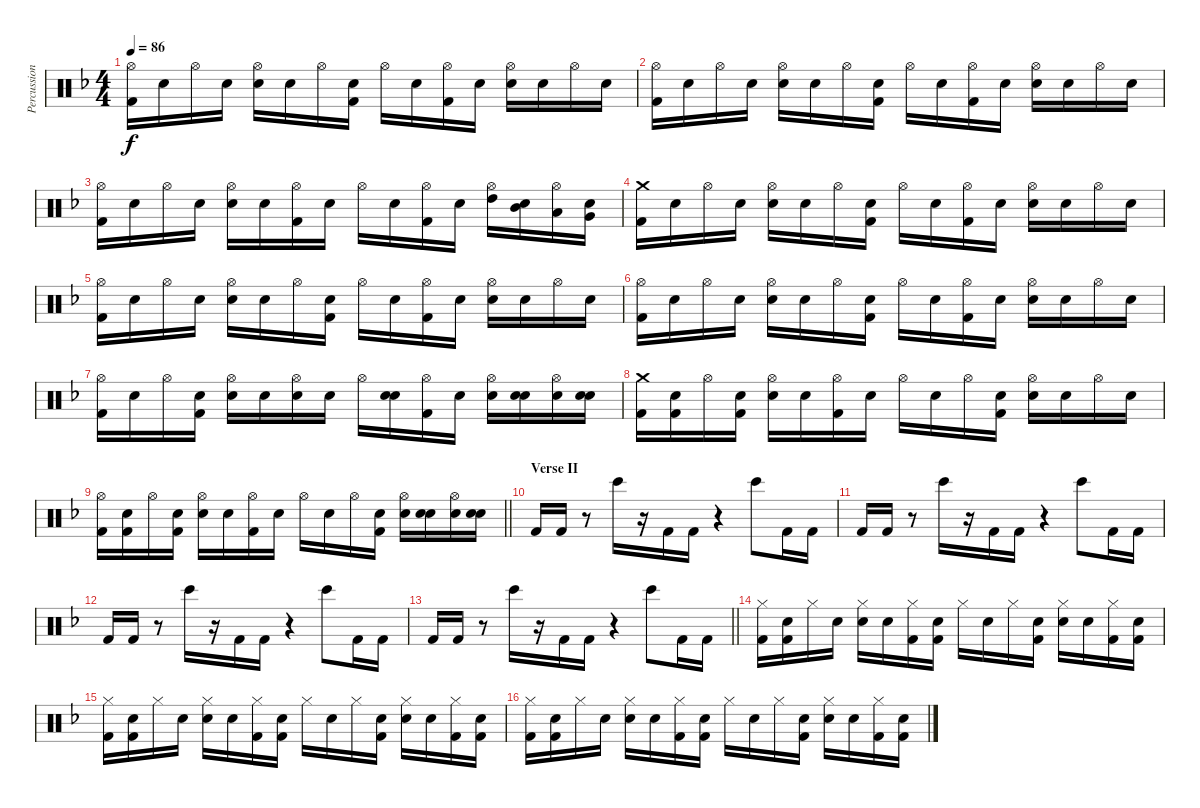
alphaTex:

\track ("Percussion" "Percussion") {instrument percussion}
\staff {score}
\articulation defaults
\ts (4 4)
\tempo 86
\clef neutral
\ks f
("Hi-Hat (open)" "Kick (hit) 2").16{dy f} "Snare (hit)".16 "Hi-Hat (open)".16 "Snare (hit)".16 ("Hi-Hat (open)" "Electric Snare (hit)").16 "Snare (hit)".16 "Hi-Hat (open)".16 ("Snare (hit)" "Kick (hit) 2").16 "Hi-Hat (open)".16 "Snare (hit)".16 ("Hi-Hat (open)" "Kick (hit) 2").16 "Snare (hit)".16 ("Hi-Hat (open)" "Electric Snare (hit)").16 "Snare (hit)".16 "Hi-Hat (open)".16 "Snare (hit)".16 |
("Hi-Hat (open)" "Kick (hit) 2").16 "Snare (hit)".16 "Hi-Hat (open)".16 "Snare (hit)".16 ("Hi-Hat (open)" "Electric Snare (hit)").16 "Snare (hit)".16 "Hi-Hat (open)".16 ("Snare (hit)" "Kick (hit) 2").16 "Hi-Hat (open)".16 "Snare (hit)".16 ("Hi-Hat (open)" "Kick (hit) 2").16 "Snare (hit)".16 ("Hi-Hat (open)" "Electric Snare (hit)").16 "Snare (hit)".16 "Hi-Hat (open)".16 "Snare (hit)".16 |
("Hi-Hat (open)" "Kick (hit) 2").16 "Snare (hit)".16 "Hi-Hat (open)".16 "Snare (hit)".16 ("Hi-Hat (open)" "Electric Snare (hit)").16 "Snare (hit)".16 ("Hi-Hat (open)" "Kick (hit) 2").16 "Snare (hit)".16 "Hi-Hat (open)".16 "Snare (hit)".16 ("Hi-Hat (open)" "Kick (hit) 2").16 "Snare (hit)".16 ("Hi-Hat (open)" "High Tom (hit)").16 ("Snare (hit)" "Mid Tom (hit)").16 ("Hi-Hat (open)" "Low Tom (hit)").16 ("Snare (hit)" "Very Low Tom (hit)").16 |
("Crash medium (hit)" "Kick (hit) 2").16 "Snare (hit)".16 "Hi-Hat (open)".16 "Snare (hit)".16 ("Hi-Hat (open)" "Electric Snare (hit)").16 "Snare (hit)".16 "Hi-Hat (open)".16 ("Snare (hit)" "Kick (hit) 2").16 "Hi-Hat (open)".16 "Snare (hit)".16 ("Hi-Hat (open)" "Kick (hit) 2").16 "Snare (hit)".16 ("Hi-Hat (open)" "Electric Snare (hit)").16 "Snare (hit)".16 "Hi-Hat (open)".16 "Snare (hit)".16 |
("Hi-Hat (open)" "Kick (hit) 2").16 "Snare (hit)".16 "Hi-Hat (open)".16 "Snare (hit)".16 ("Hi-Hat (open)" "Electric Snare (hit)").16 "Snare (hit)".16 "Hi-Hat (open)".16 ("Snare (hit)" "Kick (hit) 2").16 "Hi-Hat (open)".16 "Snare (hit)".16 ("Hi-Hat (open)" "Kick (hit) 2").16 "Snare (hit)".16 ("Hi-Hat (open)" "Electric Snare (hit)").16 "Snare (hit)".16 "Hi-Hat (open)".16 "Snare (hit)".16 |
("Hi-Hat (open)" "Kick (hit) 2").16 "Snare (hit)".16 "Hi-Hat (open)".16 "Snare (hit)".16 ("Hi-Hat (open)" "Electric Snare (hit)").16 "Snare (hit)".16 "Hi-Hat (open)".16 ("Snare (hit)" "Kick (hit) 2").16 "Hi-Hat (open)".16 "Snare (hit)".16 ("Hi-Hat (open)" "Kick (hit) 2").16 "Snare (hit)".16 ("Hi-Hat (open)" "Electric Snare (hit)").16 "Snare (hit)".16 "Hi-Hat (open)".16 "Snare (hit)".16 |
("Hi-Hat (open)" "Kick (hit) 2").16 "Snare (hit)".16 "Hi-Hat (open)".16 ("Snare (hit)" "Kick (hit) 2").16 ("Hi-Hat (open)" "Electric Snare (hit)").16 "Snare (hit)".16 ("Hi-Hat (open)" "Electric Snare (hit)").16 "Snare (hit)".16 "Hi-Hat (open)".16 ("Snare (hit)" "Electric Snare (hit)").16 ("Hi-Hat (open)" "Kick (hit) 2").16 "Snare (hit)".16 ("Hi-Hat (open)" "Electric Snare (hit)").16 ("Snare (hit)" "Electric Snare (hit)").16 ("Hi-Hat (open)" "Electric Snare (hit)").16 ("Snare (hit)" "Electric Snare (hit)").16 |
("Crash medium (hit)" "Kick (hit) 2").16 ("Snare (hit)" "Kick (hit) 2").16 "Hi-Hat (open)".16 ("Snare (hit)" "Kick (hit) 2").16 ("Hi-Hat (open)" "Electric Snare (hit)").16 "Snare (hit)".16 ("Hi-Hat (open)" "Kick (hit) 2").16 "Snare (hit)".16 "Hi-Hat (open)".16 "Snare (hit)".16 "Hi-Hat (open)".16 ("Snare (hit)" "Kick (hit) 2").16 ("Hi-Hat (open)" "Electric Snare (hit)").16 "Snare (hit)".16 "Hi-Hat (open)".16 "Snare (hit)".16 |
\barLineRight lightlight
("Hi-Hat (open)" "Kick (hit) 2").16 ("Snare (hit)" "Kick (hit) 2").16 "Hi-Hat (open)".16 ("Snare (hit)" "Kick (hit) 2").16 ("Hi-Hat (open)" "Electric Snare (hit)").16 "Snare (hit)".16 ("Hi-Hat (open)" "Kick (hit) 2").16 "Snare (hit)".16 "Hi-Hat (open)".16 "Snare (hit)".16 "Hi-Hat (open)".16 ("Snare (hit)" "Kick (hit) 2").16 ("Hi-Hat (open)" "Electric Snare (hit)").16 ("Snare (hit)" "Electric Snare (hit)").16 ("Hi-Hat (open)" "Electric Snare (hit)").16 ("Snare (hit)" "Electric Snare (hit)").16 |
\section ("" "Verse II")
"Kick (hit) 2".16 "Kick (hit) 2".16 r.8 "Bongo High (hit)".16 r.16 "Kick (hit) 2".16 "Kick (hit) 2".16 r.4 "Bongo High (hit)".8 "Kick (hit) 2".16 "Kick (hit) 2".16 |
"Kick (hit) 2".16 "Kick (hit) 2".16 r.8 "Bongo High (hit)".16 r.16 "Kick (hit) 2".16 "Kick (hit) 2".16 r.4 "Bongo High (hit)".8 "Kick (hit) 2".16 "Kick (hit) 2".16 |
"Kick (hit) 2".16 "Kick (hit) 2".16 r.8 "Bongo High (hit)".16 r.16 "Kick (hit) 2".16 "Kick (hit) 2".16 r.4 "Bongo High (hit)".8 "Kick (hit) 2".16 "Kick (hit) 2".16 |
\barLineRight lightlight "Kick (hit) 2".16 "Kick (hit) 2".16
r.8 "Bongo High (hit)".16 r.16 "Kick (hit) 2".16 "Kick (hit) 2".16 r.4 "Bongo High (hit)".8 "Kick (hit) 2".16 "Kick (hit) 2".16 |
("Hi-Hat (closed)" "Kick (hit) 2").16 ("Snare (hit)" "Kick (hit) 2").16 "Hi-Hat (closed)".16 "Snare (hit)".16 ("Hi-Hat (closed)" "Electric Snare (hit)").16 "Snare (hit)".16 ("Hi-Hat (closed)" "Kick (hit) 2").16 ("Snare (hit)" "Kick (hit) 2").16 "Hi-Hat (closed)".16 "Snare (hit)".16 "Hi-Hat (closed)".16 ("Snare (hit)" "Kick (hit) 2").16 ("Hi-Hat (closed)" "Electric Snare (hit)").16 "Snare (hit)".16 ("Hi-Hat (closed)" "Kick (hit) 2").16 ("Snare (hit)" "Kick (hit) 2").16 |
("Hi-Hat (closed)" "Kick (hit) 2").16 ("Snare (hit)" "Kick (hit) 2").16 "Hi-Hat (closed)".16 "Snare (hit)".16 ("Hi-Hat (closed)" "Electric Snare (hit)").16 "Snare (hit)".16 ("Hi-Hat (closed)" "Kick (hit) 2").16 ("Snare (hit)" "Kick (hit) 2").16 "Hi-Hat (closed)".16 "Snare (hit)".16 "Hi-Hat (closed)".16 ("Snare (hit)" "Kick (hit) 2").16 ("Hi-Hat (closed)" "Electric Snare (hit)").16 "Snare (hit)".16 ("Hi-Hat (closed)" "Kick (hit) 2").16 ("Snare (hit)" "Kick (hit) 2").16 |
("Hi-Hat (closed)" "Kick (hit) 2").16 ("Snare (hit)" "Kick (hit) 2").16 "Hi-Hat (closed)".16 "Snare (hit)".16 ("Hi-Hat (closed)" "Electric Snare (hit)").16 "Snare (hit)".16 ("Hi-Hat (closed)" "Kick (hit) 2").16 ("Snare (hit)" "Kick (hit) 2").16 "Hi-Hat (closed)".16 "Snare (hit)".16 "Hi-Hat (closed)".16 ("Snare (hit)" "Kick (hit) 2").16 ("Hi-Hat (closed)" "Electric Snare (hit)").16 "Snare (hit)".16 ("Hi-Hat (closed)" "Kick (hit) 2").16 ("Snare (hit)" "Kick (hit) 2").16
